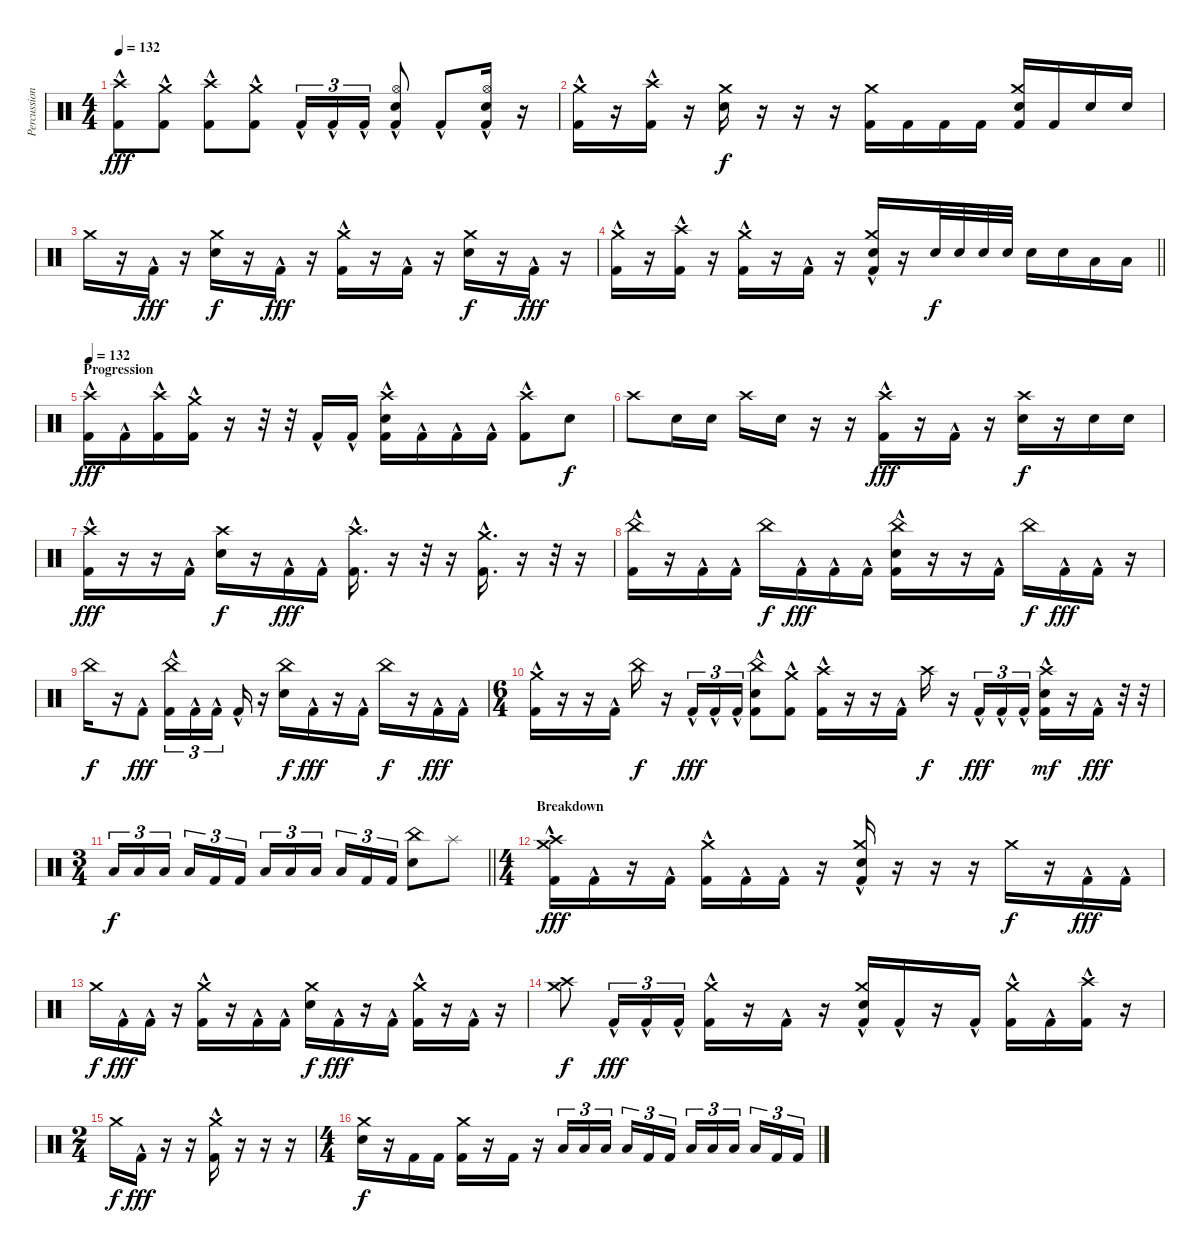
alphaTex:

\track ("Percussion" "Percussion") {instrument percussion}
\staff {score}
\articulation defaults
\ts (4 4)
\tempo 132
\clef neutral
\ks c
("Crash high (hit)" "Kick (hit) 2"{hac}).8{dy fff} ("Crash medium (hit)" "Kick (hit) 2"{hac}).8 ("Crash high (hit)" "Kick (hit) 2"{hac}).8 ("Crash medium (hit)" "Kick (hit) 2"{hac}).8 "Kick (hit) 2"{hac}.16{tu (3 2)} "Kick (hit) 2"{hac}.16{tu (3 2)} "Kick (hit) 2"{hac}.16{tu (3 2)} ("Hi-Hat (open)" "Electric Snare (hit)"{hac} "Kick (hit) 2"{hac}).8 "Kick (hit) 2"{hac}.8 ("Hi-Hat (open)" "Electric Snare (hit)" "Kick (hit) 2"{hac}).16 r.16 |
("Crash medium (hit)" "Kick (hit) 2"{hac}).16 r.16 ("Crash high (hit)" "Kick (hit) 2"{hac}).16 r.16 ("Crash medium (hit)" "Electric Snare (hit)").16{dy f} r.16 r.16 r.16 ("Crash medium (hit)" "Kick (hit) 2").16 "Kick (hit) 2".16 "Kick (hit) 2".16 "Kick (hit) 2".16 ("Crash medium (hit)" "Electric Snare (hit)" "Kick (hit) 2").16 "Kick (hit) 2".16 "Electric Snare (hit)".16 "Electric Snare (hit)".16 |
"Crash medium (hit)".16 r.16 "Kick (hit) 2"{hac}.16{dy fff} r.16 ("Crash medium (hit)" "Electric Snare (hit)").16{dy f} r.16 "Kick (hit) 2"{hac}.16{dy fff} r.16 ("Crash medium (hit)" "Kick (hit) 2"{hac}).16 r.16 "Kick (hit) 2"{hac}.16 r.16 ("Crash medium (hit)" "Electric Snare (hit)").16{dy f} r.16 "Kick (hit) 2"{hac}.16{dy fff} r.16 |
\barLineRight lightlight
("Crash medium (hit)" "Kick (hit) 2"{hac}).16 r.16 ("Crash high (hit)" "Kick (hit) 2"{hac}).16 r.16 ("Crash medium (hit)" "Kick (hit) 2"{hac}).16 r.16 "Kick (hit) 2"{hac}.16 r.16 ("Crash medium (hit)" "Electric Snare (hit)" "Kick (hit) 2"{hac}).16 r.16 "Electric Snare (hit)".32{dy f} "Electric Snare (hit)".32 "Electric Snare (hit)".32 "Electric Snare (hit)".32 "Electric Snare (hit)".16 "Electric Snare (hit)".16 "Low Tom (hit)".16 "Low Tom (hit)".16 |
\section ("" "Progression")
\tempo 132
("Crash high (hit)" "Kick (hit) 2"{hac}).16{dy fff} "Kick (hit) 2"{hac}.16 ("Crash high (hit)" "Kick (hit) 2"{hac}).16 ("Crash medium (hit)" "Kick (hit) 2"{hac}).16 r.16 r.32 r.32 "Kick (hit) 2"{hac}.16 "Kick (hit) 2"{hac}.16 ("Crash high (hit)" "Electric Snare (hit)" "Kick (hit) 2"{hac}).16 "Kick (hit) 2"{hac}.16 "Kick (hit) 2"{hac}.16 "Kick (hit) 2"{hac}.16 ("Crash high (hit)" "Kick (hit) 2"{hac}).8 "Electric Snare (hit)".8{dy f} |
"Crash high (hit)".8 "Electric Snare (hit)".16 "Electric Snare (hit)".16 "Crash high (hit)".16 "Electric Snare (hit)".16 r.16 r.16 ("Crash high (hit)" "Kick (hit) 2"{hac}).16{dy fff} r.16 "Kick (hit) 2"{hac}.16 r.16 ("Crash high (hit)" "Electric Snare (hit)").16{dy f} r.16 "Electric Snare (hit)".16 "Electric Snare (hit)".16 |
("Crash high (hit)" "Kick (hit) 2"{hac}).16{dy fff} r.16 r.16 "Kick (hit) 2"{hac}.16 ("Crash high (hit)" "Electric Snare (hit)").16{dy f} r.16 "Kick (hit) 2"{hac}.16{dy fff} "Kick (hit) 2"{hac}.16 ("Crash high (hit)" "Kick (hit) 2"{hac}).16{d} r.16{volume 0} r.32 r.16 ("Crash medium (hit)" "Kick (hit) 2"{hac}).16{d volume 13} r.16{volume 0} r.32 r.16 |
("China (hit)" "Kick (hit) 2"{hac}).16{volume 13} r.16 "Kick (hit) 2"{hac}.16 "Kick (hit) 2"{hac}.16 "China (hit)".16{dy f} "Kick (hit) 2"{hac}.16{dy fff} "Kick (hit) 2"{hac}.16 "Kick (hit) 2"{hac}.16 ("China (hit)" "Electric Snare (hit)" "Kick (hit) 2"{hac}).16 r.16 r.16 "Kick (hit) 2"{hac}.16 "China (hit)".16{dy f} "Kick (hit) 2"{hac}.16{dy fff} "Kick (hit) 2"{hac}.16 r.16 |
"China (hit)".16{dy f} r.16 "Kick (hit) 2"{hac}.8{dy fff} ("China (hit)" "Kick (hit) 2"{hac}).16{tu (3 2)} "Kick (hit) 2"{hac}.16{tu (3 2)} "Kick (hit) 2"{hac}.16{tu (3 2) beam splitsecondary} "Kick (hit) 2"{hac}.16 r.16 ("China (hit)" "Electric Snare (hit)").16{dy f} "Kick (hit) 2"{hac}.16{dy fff} r.16 "Kick (hit) 2"{hac}.16 "China (hit)".16{dy f} r.16 "Kick (hit) 2"{hac}.16{dy fff} "Kick (hit) 2"{hac}.16 |
\ts (6 4)
("Kick (hit) 2"{hac} "Crash medium (hit)").16 r.16 r.16 "Kick (hit) 2"{hac}.16 "China (hit)".16{dy f} r.16 "Kick (hit) 2"{hac}.16{tu (3 2) dy fff} "Kick (hit) 2"{hac}.16{tu (3 2)} "Kick (hit) 2"{hac}.16{tu (3 2)} ("Kick (hit) 2"{hac} "Electric Snare (hit)" "China (hit)").8 ("Kick (hit) 2"{hac} "Crash medium (hit)").8 ("Kick (hit) 2"{hac} "Crash high (hit)").16 r.16 r.16 "Kick (hit) 2"{hac}.16 "Crash high (hit)".16{dy f} r.16 "Kick (hit) 2"{hac}.16{tu (3 2) dy fff} "Kick (hit) 2"{hac}.16{tu (3 2)} "Kick (hit) 2"{hac}.16{tu (3 2) beam splitsecondary} ("Kick (hit) 2"{hac} "Electric Snare (hit)" "Crash high (hit)").16{dy mf} r.16 "Kick (hit) 2"{hac}.16{dy fff} r.32 r.32 |
\ts (3 4)
\barLineRight lightlight "Low Tom (hit)".16{tu (3 2) dy f} "Low Tom (hit)".16{tu (3 2)} "Low Tom (hit)".16{tu (3 2) beam splitsecondary} "Low Tom (hit)".16{tu (3 2)} "Kick (hit) 2".16{tu (3 2)} "Kick (hit) 2".16{tu (3 2)} "Low Floor Tom (hit)".16{tu (3 2)} "Low Floor Tom (hit)".16{tu (3 2)} "Low Floor Tom (hit)".16{tu (3 2) beam splitsecondary} "Low Floor Tom (hit)".16{tu (3 2)} "Kick (hit) 2".16{tu (3 2)} "Kick (hit) 2".16{tu (3 2)}
("China (hit)" "Electric Snare (hit)").8 "Splash (hit)".8 |
\ts (4 4)
\section ("" "Breakdown")
("Crash high (hit)" "Crash medium (hit)" "Kick (hit) 2"{hac}).16{dy fff} "Kick (hit) 2"{hac}.16 r.16 "Kick (hit) 2"{hac}.16 ("Crash medium (hit)" "Kick (hit) 2"{hac}).16 "Kick (hit) 2"{hac}.16 "Kick (hit) 2"{hac}.16 r.16 ("Electric Snare (hit)" "Crash medium (hit)" "Kick (hit) 2"{hac}).16 r.16 r.16 r.16 "Crash medium (hit)".16{dy f} r.16 "Kick (hit) 2"{hac}.16{dy fff} "Kick (hit) 2"{hac}.16 |
"Crash medium (hit)".16{dy f} "Kick (hit) 2"{hac}.16{dy fff} "Kick (hit) 2"{hac}.16 r.16 ("Crash medium (hit)" "Kick (hit) 2"{hac}).16 r.16 "Kick (hit) 2"{hac}.16 "Kick (hit) 2"{hac}.16 ("Electric Snare (hit)" "Crash medium (hit)").16{dy f} "Kick (hit) 2"{hac}.16{dy fff} r.16 "Kick (hit) 2"{hac}.16 ("Crash medium (hit)" "Kick (hit) 2"{hac}).16 r.16 "Kick (hit) 2"{hac}.16 r.16 |
("Crash medium (hit)" "Crash high (hit)").8{dy f} "Kick (hit) 2"{hac}.16{tu (3 2) dy fff} "Kick (hit) 2"{hac}.16{tu (3 2)} "Kick (hit) 2"{hac}.16{tu (3 2)} ("Crash medium (hit)" "Kick (hit) 2"{hac}).16 r.16 "Kick (hit) 2"{hac}.16 r.16 ("Crash medium (hit)" "Electric Snare (hit)" "Kick (hit) 2"{hac}).16 "Kick (hit) 2"{hac}.16 r.16 "Kick (hit) 2"{hac}.16 ("Crash medium (hit)" "Kick (hit) 2"{hac}).16 "Kick (hit) 2"{hac}.16 ("Crash high (hit)" "Kick (hit) 2"{hac}).16 r.16 |
\ts (2 4)
"Crash medium (hit)".16{dy f} "Kick (hit) 2"{hac}.16{dy fff} r.16 r.16 ("Crash medium (hit)" "Kick (hit) 2"{hac}).16 r.16 r.16 r.16 |
\ts (4 4)
("Electric Snare (hit)" "Crash medium (hit)").16{dy f} r.16 "Kick (hit) 2".16 "Kick (hit) 2".16 ("Crash medium (hit)" "Kick (hit) 2").16 r.16 "Kick (hit) 2".16 r.16 "Low Tom (hit)".16{tu (3 2)} "Low Tom (hit)".16{tu (3 2)} "Low Tom (hit)".16{tu (3 2) beam splitsecondary} "Low Tom (hit)".16{tu (3 2)} "Kick (hit) 2".16{tu (3 2)} "Kick (hit) 2".16{tu (3 2)} "Low Floor Tom (hit)".16{tu (3 2)} "Low Floor Tom (hit)".16{tu (3 2)} "Low Floor Tom (hit)".16{tu (3 2) beam splitsecondary} "Low Floor Tom (hit)".16{tu (3 2)} "Kick (hit) 2".16{tu (3 2)} "Kick (hit) 2".16{tu (3 2)}
